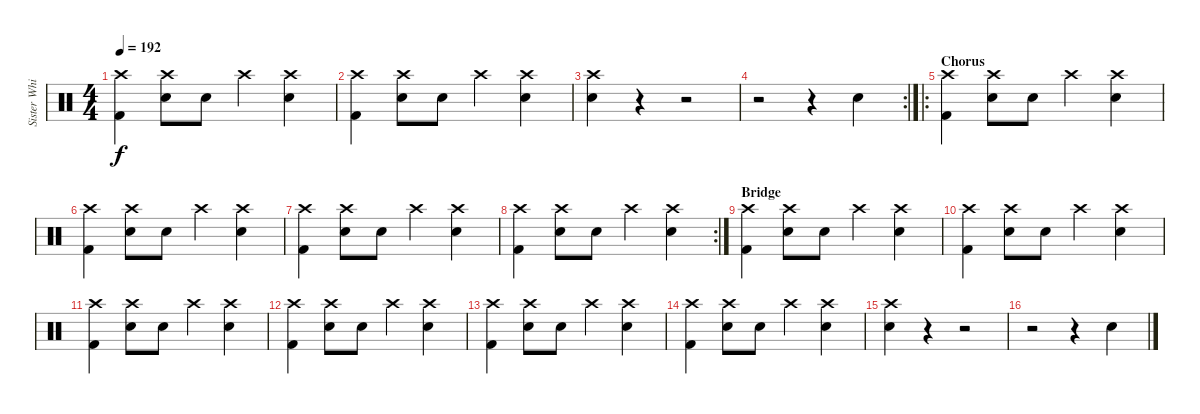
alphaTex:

\track ("Sister White" "Sister Whi") {instrument percussion}
\staff {score}
\articulation defaults
\ts (4 4)
\tempo 192
\clef neutral
\ks c
("Crash high (hit)" "Kick (hit) 2").4{dy f} ("Crash high (hit)" "Electric Snare (hit)").8 "Electric Snare (hit)".8 "Crash high (hit)".4 ("Crash high (hit)" "Electric Snare (hit)").4 |
("Crash high (hit)" "Kick (hit) 2").4 ("Crash high (hit)" "Electric Snare (hit)").8 "Electric Snare (hit)".8 "Crash high (hit)".4 ("Crash high (hit)" "Electric Snare (hit)").4 |
("Crash high (hit)" "Electric Snare (hit)").4 r.4 r.2 |
\rc 2
r.2 r.4 "Electric Snare (hit)".4 |
\ro
\section ("" "Chorus")
("Crash high (hit)" "Kick (hit) 2").4 ("Crash high (hit)" "Electric Snare (hit)").8 "Electric Snare (hit)".8 "Crash high (hit)".4 ("Crash high (hit)" "Electric Snare (hit)").4 |
("Crash high (hit)" "Kick (hit) 2").4 ("Crash high (hit)" "Electric Snare (hit)").8 "Electric Snare (hit)".8 "Crash high (hit)".4 ("Crash high (hit)" "Electric Snare (hit)").4 |
("Crash high (hit)" "Kick (hit) 2").4 ("Crash high (hit)" "Electric Snare (hit)").8 "Electric Snare (hit)".8 "Crash high (hit)".4 ("Crash high (hit)" "Electric Snare (hit)").4 |
\rc 2
("Crash high (hit)" "Kick (hit) 2").4 ("Crash high (hit)" "Electric Snare (hit)").8 "Electric Snare (hit)".8 "Crash high (hit)".4 ("Crash high (hit)" "Electric Snare (hit)").4 |
\section ("" "Bridge")
("Crash high (hit)" "Kick (hit) 2").4 ("Crash high (hit)" "Electric Snare (hit)").8 "Electric Snare (hit)".8 "Crash high (hit)".4 ("Crash high (hit)" "Electric Snare (hit)").4 |
("Crash high (hit)" "Kick (hit) 2").4 ("Crash high (hit)" "Electric Snare (hit)").8 "Electric Snare (hit)".8 "Crash high (hit)".4 ("Crash high (hit)" "Electric Snare (hit)").4 |
("Crash high (hit)" "Kick (hit) 2").4 ("Crash high (hit)" "Electric Snare (hit)").8 "Electric Snare (hit)".8 "Crash high (hit)".4 ("Crash high (hit)" "Electric Snare (hit)").4 |
("Crash high (hit)" "Kick (hit) 2").4 ("Crash high (hit)" "Electric Snare (hit)").8 "Electric Snare (hit)".8 "Crash high (hit)".4 ("Crash high (hit)" "Electric Snare (hit)").4 |
("Crash high (hit)" "Kick (hit) 2").4 ("Crash high (hit)" "Electric Snare (hit)").8 "Electric Snare (hit)".8 "Crash high (hit)".4 ("Crash high (hit)" "Electric Snare (hit)").4 |
("Crash high (hit)" "Kick (hit) 2").4 ("Crash high (hit)" "Electric Snare (hit)").8 "Electric Snare (hit)".8 "Crash high (hit)".4 ("Crash high (hit)" "Electric Snare (hit)").4 |
("Crash high (hit)" "Electric Snare (hit)").4 r.4 r.2 |
r.2 r.4 "Electric Snare (hit)".4
